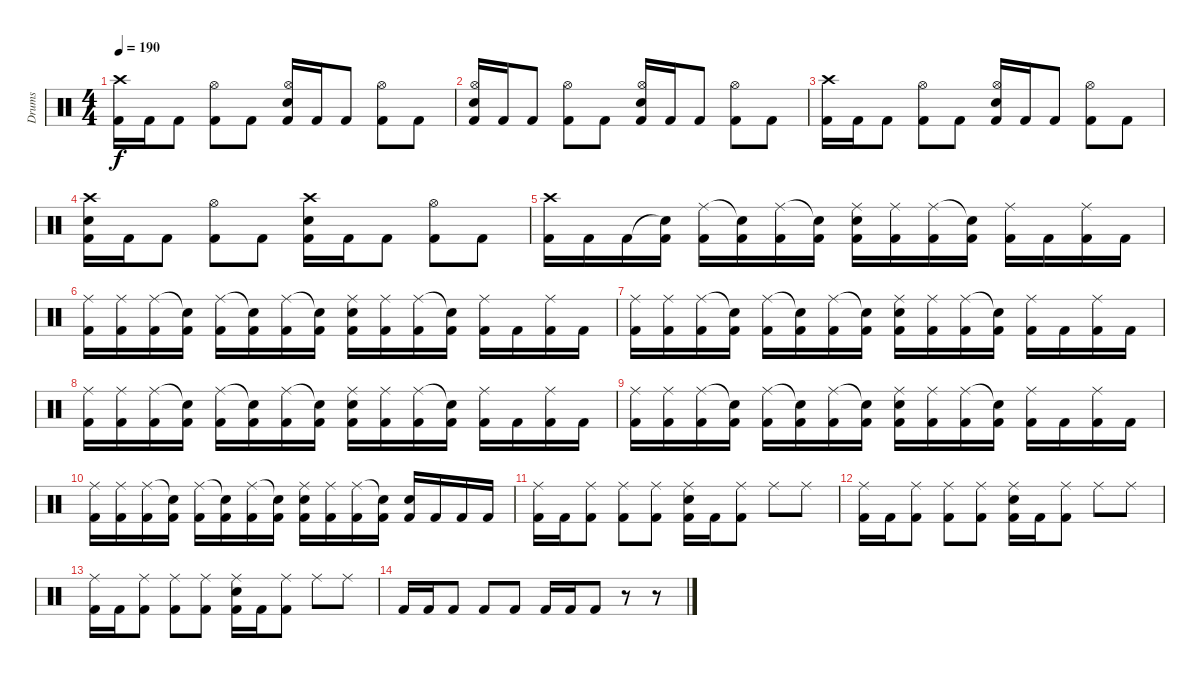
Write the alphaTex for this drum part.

\track ("Drums" "Drums") {instrument percussion}
\staff {score}
\articulation defaults
\ts (4 4)
\tempo 190
\clef neutral
\ks c
("Crash high (hit)" "Kick (hit) 2").16{dy f} "Kick (hit) 2".16 "Kick (hit) 2".8 ("Hi-Hat (open)" "Kick (hit) 2").8 "Kick (hit) 2".8 ("Hi-Hat (open)" "Snare (hit) 2" "Kick (hit) 2").16 "Kick (hit) 2".16 "Kick (hit) 2".8 ("Hi-Hat (open)" "Kick (hit) 2").8 "Kick (hit) 2".8 |
("Hi-Hat (open)" "Snare (hit) 2" "Kick (hit) 2").16 "Kick (hit) 2".16 "Kick (hit) 2".8 ("Hi-Hat (open)" "Kick (hit) 2").8 "Kick (hit) 2".8 ("Hi-Hat (open)" "Snare (hit) 2" "Kick (hit) 2").16 "Kick (hit) 2".16 "Kick (hit) 2".8 ("Hi-Hat (open)" "Kick (hit) 2").8 "Kick (hit) 2".8 |
("Crash high (hit)" "Kick (hit) 2").16 "Kick (hit) 2".16 "Kick (hit) 2".8 ("Hi-Hat (open)" "Kick (hit) 2").8 "Kick (hit) 2".8 ("Hi-Hat (open)" "Snare (hit) 2" "Kick (hit) 2").16 "Kick (hit) 2".16 "Kick (hit) 2".8 ("Hi-Hat (open)" "Kick (hit) 2").8 "Kick (hit) 2".8 |
("Crash high (hit)" "Snare (hit) 2" "Kick (hit) 2").16 "Kick (hit) 2".16 "Kick (hit) 2".8 ("Hi-Hat (open)" "Kick (hit) 2").8 "Kick (hit) 2".8 ("Crash high (hit)" "Snare (hit) 2" "Kick (hit) 2").16 "Kick (hit) 2".16 "Kick (hit) 2".8 ("Hi-Hat (open)" "Kick (hit) 2").8 "Kick (hit) 2".8 |
("Crash high (hit)" "Kick (hit) 2").16 "Kick (hit) 2".16 "Kick (hit) 2".16 ("Snare (hit)"{t} "Kick (hit) 2").16 ("Ride (middle)" "Kick (hit) 2").16 ("Snare (hit)"{t} "Kick (hit) 2").16 ("Ride (middle)" "Kick (hit) 2").16 ("Snare (hit)"{t} "Kick (hit) 2").16 ("Ride (middle)" "Snare (hit) 2" "Kick (hit) 2").16 ("Ride (middle)" "Kick (hit) 2").16 ("Ride (middle)" "Kick (hit) 2").16 ("Snare (hit)"{t} "Kick (hit) 2").16 ("Ride (middle)" "Kick (hit) 2").16 "Kick (hit) 2".16 ("Ride (middle)" "Kick (hit) 2").16 "Kick (hit) 2".16 |
("Ride (middle)" "Kick (hit) 2").16 ("Ride (middle)" "Kick (hit) 2").16 ("Ride (middle)" "Kick (hit) 2").16 ("Snare (hit)"{t} "Kick (hit) 2").16 ("Ride (middle)" "Kick (hit) 2").16 ("Snare (hit)"{t} "Kick (hit) 2").16 ("Ride (middle)" "Kick (hit) 2").16 ("Snare (hit)"{t} "Kick (hit) 2").16 ("Ride (middle)" "Snare (hit) 2" "Kick (hit) 2").16 ("Ride (middle)" "Kick (hit) 2").16 ("Ride (middle)" "Kick (hit) 2").16 ("Snare (hit)"{t} "Kick (hit) 2").16 ("Ride (middle)" "Kick (hit) 2").16 "Kick (hit) 2".16 ("Ride (middle)" "Kick (hit) 2").16 "Kick (hit) 2".16 |
("Ride (middle)" "Kick (hit) 2").16 ("Ride (middle)" "Kick (hit) 2").16 ("Ride (middle)" "Kick (hit) 2").16 ("Snare (hit)"{t} "Kick (hit) 2").16 ("Ride (middle)" "Kick (hit) 2").16 ("Snare (hit)"{t} "Kick (hit) 2").16 ("Ride (middle)" "Kick (hit) 2").16 ("Snare (hit)"{t} "Kick (hit) 2").16 ("Ride (middle)" "Snare (hit) 2" "Kick (hit) 2").16 ("Ride (middle)" "Kick (hit) 2").16 ("Ride (middle)" "Kick (hit) 2").16 ("Snare (hit)"{t} "Kick (hit) 2").16 ("Ride (middle)" "Kick (hit) 2").16 "Kick (hit) 2".16 ("Ride (middle)" "Kick (hit) 2").16 "Kick (hit) 2".16 |
("Ride (middle)" "Kick (hit) 2").16 ("Ride (middle)" "Kick (hit) 2").16 ("Ride (middle)" "Kick (hit) 2").16 ("Snare (hit)"{t} "Kick (hit) 2").16 ("Ride (middle)" "Kick (hit) 2").16 ("Snare (hit)"{t} "Kick (hit) 2").16 ("Ride (middle)" "Kick (hit) 2").16 ("Snare (hit)"{t} "Kick (hit) 2").16 ("Ride (middle)" "Snare (hit) 2" "Kick (hit) 2").16 ("Ride (middle)" "Kick (hit) 2").16 ("Ride (middle)" "Kick (hit) 2").16 ("Snare (hit)"{t} "Kick (hit) 2").16 ("Ride (middle)" "Kick (hit) 2").16 "Kick (hit) 2".16 ("Ride (middle)" "Kick (hit) 2").16 "Kick (hit) 2".16 |
("Ride (middle)" "Kick (hit) 2").16 ("Ride (middle)" "Kick (hit) 2").16 ("Ride (middle)" "Kick (hit) 2").16 ("Snare (hit)"{t} "Kick (hit) 2").16 ("Ride (middle)" "Kick (hit) 2").16 ("Snare (hit)"{t} "Kick (hit) 2").16 ("Ride (middle)" "Kick (hit) 2").16 ("Snare (hit)"{t} "Kick (hit) 2").16 ("Ride (middle)" "Snare (hit) 2" "Kick (hit) 2").16 ("Ride (middle)" "Kick (hit) 2").16 ("Ride (middle)" "Kick (hit) 2").16 ("Snare (hit)"{t} "Kick (hit) 2").16 ("Ride (middle)" "Kick (hit) 2").16 "Kick (hit) 2".16 ("Ride (middle)" "Kick (hit) 2").16 "Kick (hit) 2".16 |
("Ride (middle)" "Kick (hit) 2").16 ("Ride (middle)" "Kick (hit) 2").16 ("Ride (middle)" "Kick (hit) 2").16 ("Snare (hit)"{t} "Kick (hit) 2").16 ("Ride (middle)" "Kick (hit) 2").16 ("Snare (hit)"{t} "Kick (hit) 2").16 ("Ride (middle)" "Kick (hit) 2").16 ("Snare (hit)"{t} "Kick (hit) 2").16 ("Ride (middle)" "Snare (hit) 2" "Kick (hit) 2").16 ("Ride (middle)" "Kick (hit) 2").16 ("Ride (middle)" "Kick (hit) 2").16 ("Snare (hit)"{t} "Kick (hit) 2").16 ("Snare (hit) 2" "Kick (hit) 2").16 "Kick (hit) 2".16 "Kick (hit) 2".16 "Kick (hit) 2".16 |
("Ride (middle)" "Kick (hit) 2").16 "Kick (hit) 2".16 ("Ride (middle)" "Kick (hit) 2").8 ("Ride (middle)" "Kick (hit) 2").8 ("Ride (middle)" "Kick (hit) 2").8 ("Ride (middle)" "Snare (hit) 2" "Kick (hit) 2").16 "Kick (hit) 2".16 ("Ride (middle)" "Kick (hit) 2").8 "Ride (middle)".8 "Ride (middle)".8 |
("Ride (middle)" "Kick (hit) 2").16 "Kick (hit) 2".16 ("Ride (middle)" "Kick (hit) 2").8 ("Ride (middle)" "Kick (hit) 2").8 ("Ride (middle)" "Kick (hit) 2").8 ("Ride (middle)" "Snare (hit) 2" "Kick (hit) 2").16 "Kick (hit) 2".16 ("Ride (middle)" "Kick (hit) 2").8 "Ride (middle)".8 "Ride (middle)".8 |
("Ride (middle)" "Kick (hit) 2").16 "Kick (hit) 2".16 ("Ride (middle)" "Kick (hit) 2").8 ("Ride (middle)" "Kick (hit) 2").8 ("Ride (middle)" "Kick (hit) 2").8 ("Ride (middle)" "Snare (hit) 2" "Kick (hit) 2").16 "Kick (hit) 2".16 ("Ride (middle)" "Kick (hit) 2").8 "Ride (middle)".8 "Ride (middle)".8 |
"Kick (hit) 2".16 "Kick (hit) 2".16 "Kick (hit) 2".8 "Kick (hit) 2".8 "Kick (hit) 2".8 "Kick (hit) 2".16 "Kick (hit) 2".16 "Kick (hit) 2".8 r.8 r.8
